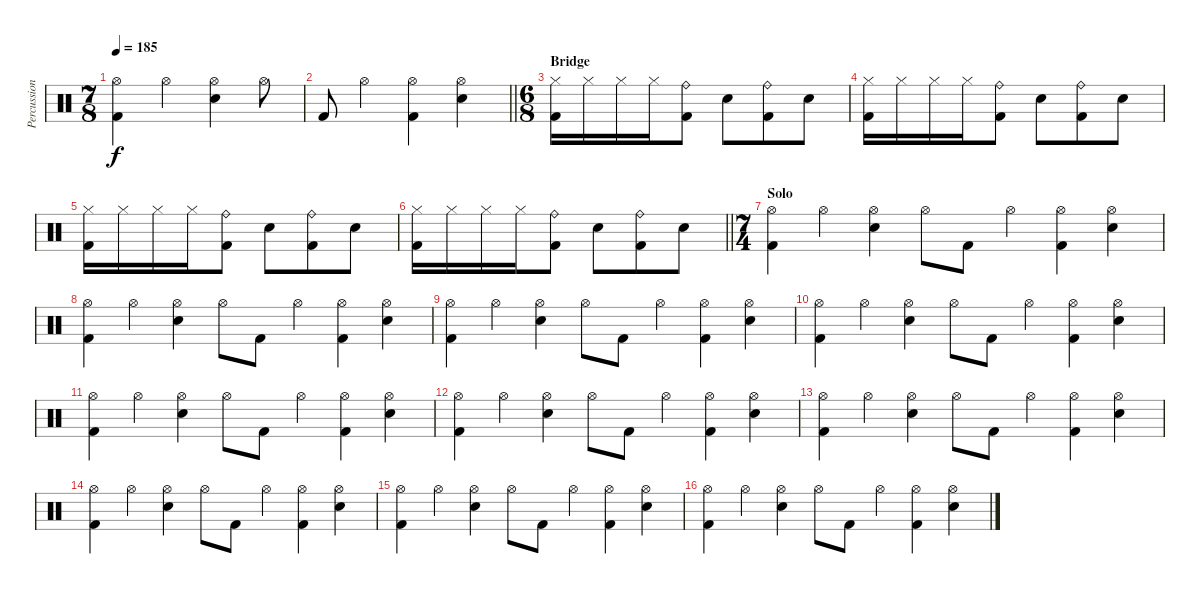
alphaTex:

\track ("Percussion" "Percussion") {instrument percussion}
\staff {score}
\articulation defaults
\ts (7 8)
\tempo 185
\clef neutral
\ks c
("Hi-Hat (open)" "Kick (hit) 2").4{dy f} "Hi-Hat (open)".4 ("Hi-Hat (open)" "Snare (hit) 2").4 "Hi-Hat (open)".8 |
\barLineRight lightlight "Kick (hit) 2".8 "Hi-Hat (open)".4
("Hi-Hat (open)" "Kick (hit) 2").4 ("Hi-Hat (open)" "Snare (hit) 2").4 |
\ts (6 8)
\section ("" "Bridge")
("Hi-Hat (closed)" "Kick (hit) 2").16 "Hi-Hat (closed)".16 "Hi-Hat (closed)".16 "Hi-Hat (closed)".16 ("Ride (bell)" "Kick (hit) 2").8 "Snare (hit) 2".8 ("Ride (bell)" "Kick (hit) 2").8 "Snare (hit) 2".8 |
("Hi-Hat (closed)" "Kick (hit) 2").16 "Hi-Hat (closed)".16 "Hi-Hat (closed)".16 "Hi-Hat (closed)".16 ("Ride (bell)" "Kick (hit) 2").8 "Snare (hit) 2".8 ("Ride (bell)" "Kick (hit) 2").8 "Snare (hit) 2".8 |
("Hi-Hat (closed)" "Kick (hit) 2").16 "Hi-Hat (closed)".16 "Hi-Hat (closed)".16 "Hi-Hat (closed)".16 ("Ride (bell)" "Kick (hit) 2").8 "Snare (hit) 2".8 ("Ride (bell)" "Kick (hit) 2").8 "Snare (hit) 2".8 |
\barLineRight lightlight
("Hi-Hat (closed)" "Kick (hit) 2").16 "Hi-Hat (closed)".16 "Hi-Hat (closed)".16 "Hi-Hat (closed)".16 ("Ride (bell)" "Kick (hit) 2").8 "Snare (hit) 2".8 ("Ride (bell)" "Kick (hit) 2").8 "Snare (hit) 2".8 |
\ts (7 4)
\section ("" "Solo")
("Hi-Hat (open)" "Kick (hit) 2").4 "Hi-Hat (open)".4 ("Hi-Hat (open)" "Snare (hit) 2").4 "Hi-Hat (open)".8 "Kick (hit) 2".8 "Hi-Hat (open)".4 ("Hi-Hat (open)" "Kick (hit) 2").4 ("Hi-Hat (open)" "Snare (hit) 2").4 |
("Hi-Hat (open)" "Kick (hit) 2").4 "Hi-Hat (open)".4 ("Hi-Hat (open)" "Snare (hit) 2").4 "Hi-Hat (open)".8 "Kick (hit) 2".8 "Hi-Hat (open)".4 ("Hi-Hat (open)" "Kick (hit) 2").4 ("Hi-Hat (open)" "Snare (hit) 2").4 |
("Hi-Hat (open)" "Kick (hit) 2").4 "Hi-Hat (open)".4 ("Hi-Hat (open)" "Snare (hit) 2").4 "Hi-Hat (open)".8 "Kick (hit) 2".8 "Hi-Hat (open)".4 ("Hi-Hat (open)" "Kick (hit) 2").4 ("Hi-Hat (open)" "Snare (hit) 2").4 |
("Hi-Hat (open)" "Kick (hit) 2").4 "Hi-Hat (open)".4 ("Hi-Hat (open)" "Snare (hit) 2").4 "Hi-Hat (open)".8 "Kick (hit) 2".8 "Hi-Hat (open)".4 ("Hi-Hat (open)" "Kick (hit) 2").4 ("Hi-Hat (open)" "Snare (hit) 2").4 |
("Hi-Hat (open)" "Kick (hit) 2").4 "Hi-Hat (open)".4 ("Hi-Hat (open)" "Snare (hit) 2").4 "Hi-Hat (open)".8 "Kick (hit) 2".8 "Hi-Hat (open)".4 ("Hi-Hat (open)" "Kick (hit) 2").4 ("Hi-Hat (open)" "Snare (hit) 2").4 |
("Hi-Hat (open)" "Kick (hit) 2").4 "Hi-Hat (open)".4 ("Hi-Hat (open)" "Snare (hit) 2").4 "Hi-Hat (open)".8 "Kick (hit) 2".8 "Hi-Hat (open)".4 ("Hi-Hat (open)" "Kick (hit) 2").4 ("Hi-Hat (open)" "Snare (hit) 2").4 |
("Hi-Hat (open)" "Kick (hit) 2").4 "Hi-Hat (open)".4 ("Hi-Hat (open)" "Snare (hit) 2").4 "Hi-Hat (open)".8 "Kick (hit) 2".8 "Hi-Hat (open)".4 ("Hi-Hat (open)" "Kick (hit) 2").4 ("Hi-Hat (open)" "Snare (hit) 2").4 |
("Hi-Hat (open)" "Kick (hit) 2").4 "Hi-Hat (open)".4 ("Hi-Hat (open)" "Snare (hit) 2").4 "Hi-Hat (open)".8 "Kick (hit) 2".8 "Hi-Hat (open)".4 ("Hi-Hat (open)" "Kick (hit) 2").4 ("Hi-Hat (open)" "Snare (hit) 2").4 |
("Hi-Hat (open)" "Kick (hit) 2").4 "Hi-Hat (open)".4 ("Hi-Hat (open)" "Snare (hit) 2").4 "Hi-Hat (open)".8 "Kick (hit) 2".8 "Hi-Hat (open)".4 ("Hi-Hat (open)" "Kick (hit) 2").4 ("Hi-Hat (open)" "Snare (hit) 2").4 |
("Hi-Hat (open)" "Kick (hit) 2").4 "Hi-Hat (open)".4 ("Hi-Hat (open)" "Snare (hit) 2").4 "Hi-Hat (open)".8 "Kick (hit) 2".8 "Hi-Hat (open)".4 ("Hi-Hat (open)" "Kick (hit) 2").4 ("Hi-Hat (open)" "Snare (hit) 2").4
